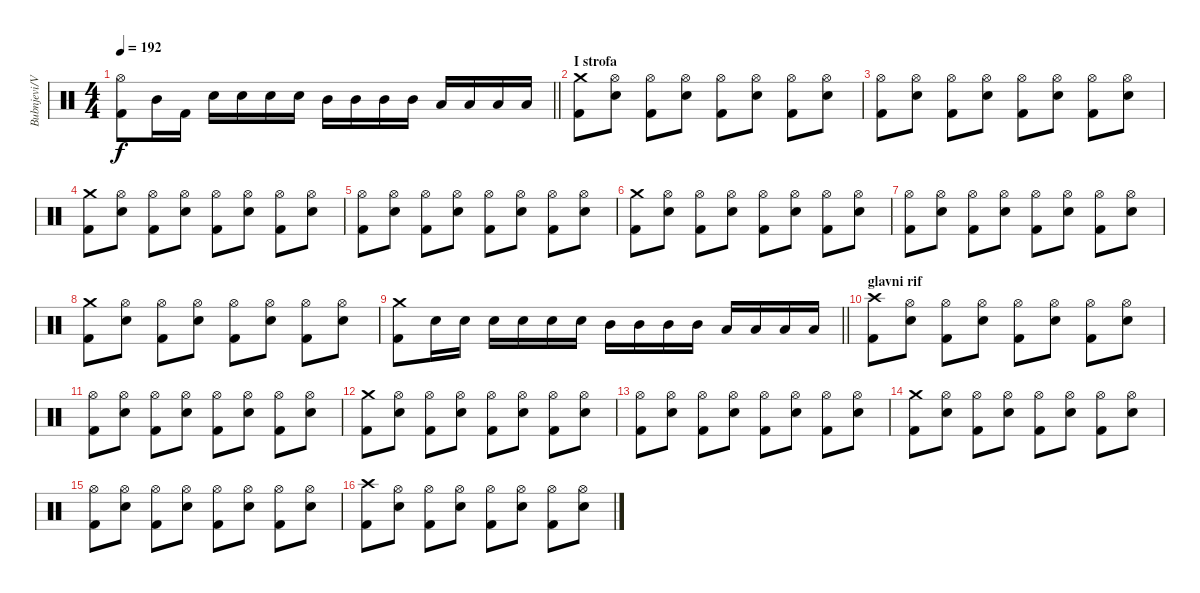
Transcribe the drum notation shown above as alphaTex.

\track ("Bubnjevi/Vestac Tlacitelj" "Bubnjevi/V") {instrument percussion}
\staff {score}
\articulation defaults
\ts (4 4)
\tempo 192
\clef neutral
\barLineRight lightlight
\ks c
("Hi-Hat (open)" "Kick (hit) 2").8{dy f} "Mid Tom (hit)".16 "Kick (hit) 2".16 "Electric Snare (hit)".16 "Electric Snare (hit)".16 "Electric Snare (hit)".16 "Electric Snare (hit)".16 "Mid Tom (hit)".16 "Mid Tom (hit)".16 "Mid Tom (hit)".16 "Mid Tom (hit)".16 "Low Tom (hit)".16 "Low Tom (hit)".16 "Low Tom (hit)".16 "Low Tom (hit)".16 |
\section ("" "I strofa")
("Crash medium (hit)" "Kick (hit) 2").8 ("Hi-Hat (open)" "Electric Snare (hit)").8 ("Hi-Hat (open)" "Kick (hit) 2").8 ("Hi-Hat (open)" "Electric Snare (hit)").8 ("Hi-Hat (open)" "Kick (hit) 2").8 ("Hi-Hat (open)" "Electric Snare (hit)").8 ("Hi-Hat (open)" "Kick (hit) 2").8 ("Hi-Hat (open)" "Electric Snare (hit)").8 |
("Hi-Hat (open)" "Kick (hit) 2").8 ("Hi-Hat (open)" "Electric Snare (hit)").8 ("Hi-Hat (open)" "Kick (hit) 2").8 ("Hi-Hat (open)" "Electric Snare (hit)").8 ("Hi-Hat (open)" "Kick (hit) 2").8 ("Hi-Hat (open)" "Electric Snare (hit)").8 ("Hi-Hat (open)" "Kick (hit) 2").8 ("Hi-Hat (open)" "Electric Snare (hit)").8 |
("Crash medium (hit)" "Kick (hit) 2").8 ("Hi-Hat (open)" "Electric Snare (hit)").8 ("Hi-Hat (open)" "Kick (hit) 2").8 ("Hi-Hat (open)" "Electric Snare (hit)").8 ("Hi-Hat (open)" "Kick (hit) 2").8 ("Hi-Hat (open)" "Electric Snare (hit)").8 ("Hi-Hat (open)" "Kick (hit) 2").8 ("Hi-Hat (open)" "Electric Snare (hit)").8 |
("Hi-Hat (open)" "Kick (hit) 2").8 ("Hi-Hat (open)" "Electric Snare (hit)").8 ("Hi-Hat (open)" "Kick (hit) 2").8 ("Hi-Hat (open)" "Electric Snare (hit)").8 ("Hi-Hat (open)" "Kick (hit) 2").8 ("Hi-Hat (open)" "Electric Snare (hit)").8 ("Hi-Hat (open)" "Kick (hit) 2").8 ("Hi-Hat (open)" "Electric Snare (hit)").8 |
("Crash medium (hit)" "Kick (hit) 2").8 ("Hi-Hat (open)" "Electric Snare (hit)").8 ("Hi-Hat (open)" "Kick (hit) 2").8 ("Hi-Hat (open)" "Electric Snare (hit)").8 ("Hi-Hat (open)" "Kick (hit) 2").8 ("Hi-Hat (open)" "Electric Snare (hit)").8 ("Hi-Hat (open)" "Kick (hit) 2").8 ("Hi-Hat (open)" "Electric Snare (hit)").8 |
("Hi-Hat (open)" "Kick (hit) 2").8 ("Hi-Hat (open)" "Electric Snare (hit)").8 ("Hi-Hat (open)" "Kick (hit) 2").8 ("Hi-Hat (open)" "Electric Snare (hit)").8 ("Hi-Hat (open)" "Kick (hit) 2").8 ("Hi-Hat (open)" "Electric Snare (hit)").8 ("Hi-Hat (open)" "Kick (hit) 2").8 ("Hi-Hat (open)" "Electric Snare (hit)").8 |
("Crash medium (hit)" "Kick (hit) 2").8 ("Hi-Hat (open)" "Electric Snare (hit)").8 ("Hi-Hat (open)" "Kick (hit) 2").8 ("Hi-Hat (open)" "Electric Snare (hit)").8 ("Hi-Hat (open)" "Kick (hit) 2").8 ("Hi-Hat (open)" "Electric Snare (hit)").8 ("Hi-Hat (open)" "Kick (hit) 2").8 ("Hi-Hat (open)" "Electric Snare (hit)").8 |
\barLineRight lightlight
("Crash medium (hit)" "Kick (hit) 2").8 "Electric Snare (hit)".16 "Electric Snare (hit)".16 "Electric Snare (hit)".16 "Electric Snare (hit)".16 "Electric Snare (hit)".16 "Electric Snare (hit)".16 "Mid Tom (hit)".16 "Mid Tom (hit)".16 "Mid Tom (hit)".16 "Mid Tom (hit)".16 "Low Tom (hit)".16 "Low Tom (hit)".16 "Low Tom (hit)".16 "Low Tom (hit)".16 |
\section ("" "glavni rif")
("Crash high (hit)" "Kick (hit) 2").8 ("Hi-Hat (open)" "Electric Snare (hit)").8 ("Hi-Hat (open)" "Kick (hit) 2").8 ("Hi-Hat (open)" "Electric Snare (hit)").8 ("Hi-Hat (open)" "Kick (hit) 2").8 ("Hi-Hat (open)" "Electric Snare (hit)").8 ("Hi-Hat (open)" "Kick (hit) 2").8 ("Hi-Hat (open)" "Electric Snare (hit)").8 |
("Hi-Hat (open)" "Kick (hit) 2").8 ("Hi-Hat (open)" "Electric Snare (hit)").8 ("Hi-Hat (open)" "Kick (hit) 2").8 ("Hi-Hat (open)" "Electric Snare (hit)").8 ("Hi-Hat (open)" "Kick (hit) 2").8 ("Hi-Hat (open)" "Electric Snare (hit)").8 ("Hi-Hat (open)" "Kick (hit) 2").8 ("Hi-Hat (open)" "Electric Snare (hit)").8 |
("Crash medium (hit)" "Kick (hit) 2").8 ("Hi-Hat (open)" "Electric Snare (hit)").8 ("Hi-Hat (open)" "Kick (hit) 2").8 ("Hi-Hat (open)" "Electric Snare (hit)").8 ("Hi-Hat (open)" "Kick (hit) 2").8 ("Hi-Hat (open)" "Electric Snare (hit)").8 ("Hi-Hat (open)" "Kick (hit) 2").8 ("Hi-Hat (open)" "Electric Snare (hit)").8 |
("Hi-Hat (open)" "Kick (hit) 2").8 ("Hi-Hat (open)" "Electric Snare (hit)").8 ("Hi-Hat (open)" "Kick (hit) 2").8 ("Hi-Hat (open)" "Electric Snare (hit)").8 ("Hi-Hat (open)" "Kick (hit) 2").8 ("Hi-Hat (open)" "Electric Snare (hit)").8 ("Hi-Hat (open)" "Kick (hit) 2").8 ("Hi-Hat (open)" "Electric Snare (hit)").8 |
("Crash medium (hit)" "Kick (hit) 2").8 ("Hi-Hat (open)" "Electric Snare (hit)").8 ("Hi-Hat (open)" "Kick (hit) 2").8 ("Hi-Hat (open)" "Electric Snare (hit)").8 ("Hi-Hat (open)" "Kick (hit) 2").8 ("Hi-Hat (open)" "Electric Snare (hit)").8 ("Hi-Hat (open)" "Kick (hit) 2").8 ("Hi-Hat (open)" "Electric Snare (hit)").8 |
("Hi-Hat (open)" "Kick (hit) 2").8 ("Hi-Hat (open)" "Electric Snare (hit)").8 ("Hi-Hat (open)" "Kick (hit) 2").8 ("Hi-Hat (open)" "Electric Snare (hit)").8 ("Hi-Hat (open)" "Kick (hit) 2").8 ("Hi-Hat (open)" "Electric Snare (hit)").8 ("Hi-Hat (open)" "Kick (hit) 2").8 ("Hi-Hat (open)" "Electric Snare (hit)").8 |
("Crash high (hit)" "Kick (hit) 2").8 ("Hi-Hat (open)" "Electric Snare (hit)").8 ("Hi-Hat (open)" "Kick (hit) 2").8 ("Hi-Hat (open)" "Electric Snare (hit)").8 ("Hi-Hat (open)" "Kick (hit) 2").8 ("Hi-Hat (open)" "Electric Snare (hit)").8 ("Hi-Hat (open)" "Kick (hit) 2").8 ("Hi-Hat (open)" "Electric Snare (hit)").8
